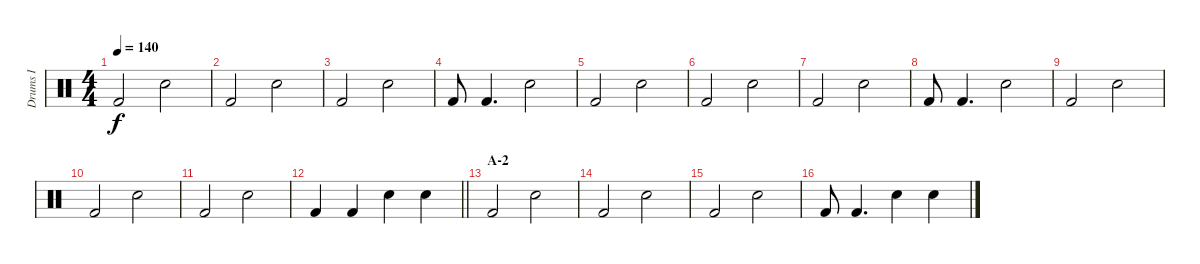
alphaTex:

\track ("Drums I" "Drums I") {instrument percussion}
\staff {score}
\articulation defaults
\ts (4 4)
\tempo 140
\clef neutral
\ks c "Kick (hit) 2".2{dy f} "Electric Snare (hit)".2
|
"Kick (hit) 2".2 "Electric Snare (hit)".2 |
"Kick (hit) 2".2 "Electric Snare (hit)".2 |
"Kick (hit) 2".8 "Kick (hit) 2".4{d} "Electric Snare (hit)".2 |
"Kick (hit) 2".2 "Electric Snare (hit)".2 |
"Kick (hit) 2".2 "Electric Snare (hit)".2 |
"Kick (hit) 2".2 "Electric Snare (hit)".2 |
"Kick (hit) 2".8 "Kick (hit) 2".4{d} "Electric Snare (hit)".2 |
"Kick (hit) 2".2 "Electric Snare (hit)".2 |
"Kick (hit) 2".2 "Electric Snare (hit)".2 |
"Kick (hit) 2".2 "Electric Snare (hit)".2 |
\barLineRight lightlight "Kick (hit) 2".4 "Kick (hit) 2".4 "Electric Snare (hit)".4 "Electric Snare (hit)".4
|
\section ("" "A-2")
"Kick (hit) 2".2 "Electric Snare (hit)".2 |
"Kick (hit) 2".2 "Electric Snare (hit)".2 |
"Kick (hit) 2".2 "Electric Snare (hit)".2 |
"Kick (hit) 2".8 "Kick (hit) 2".4{d} "Electric Snare (hit)".4 "Electric Snare (hit)".4
